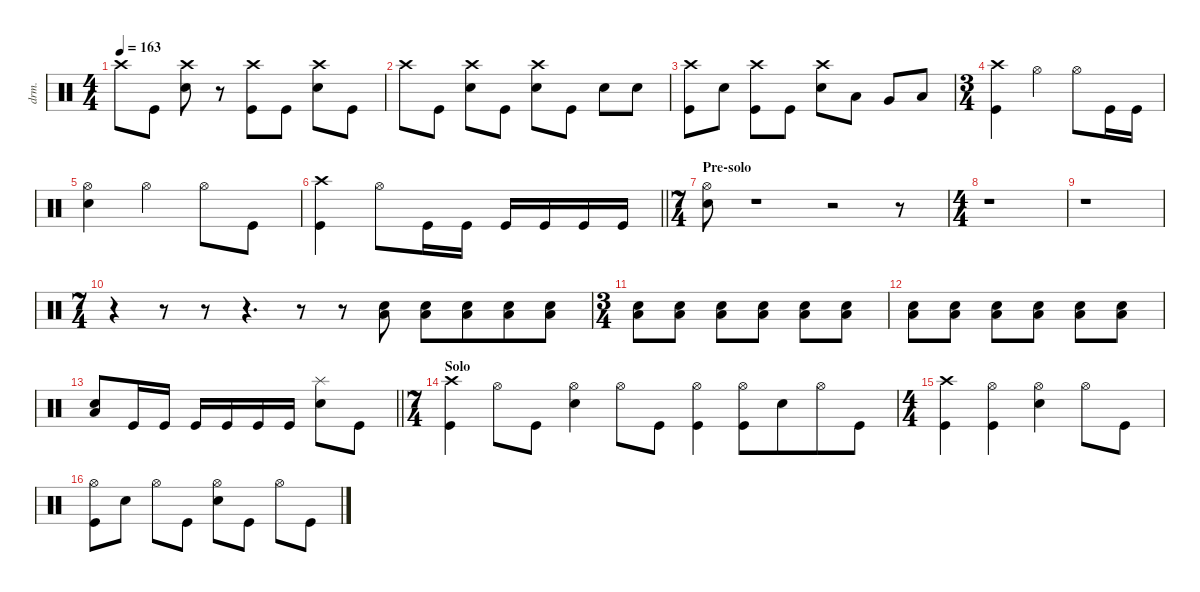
\defaultSystemsLayout 4
\hideDynamics
\bracketExtendMode nobrackets
\otherSystemsTrackNameOrientation horizontal
\track ("Drums" "drm.") {instrument percussion}
\staff {score}
\articulation defaults
\ts (4 4)
\tempo 163
\clef neutral
\ks c "Crash high (hit)".8{dy f} "Kick (hit)".8
("Crash high (hit)" "Snare (hit) 2").8 r.8 ("Crash high (hit)" "Kick (hit)").8 "Kick (hit)".8 ("Crash high (hit)" "Snare (hit) 2").8 "Kick (hit)".8 |
"Crash high (hit)".8 "Kick (hit)".8 ("Crash high (hit)" "Snare (hit) 2").8 "Kick (hit)".8 ("Crash high (hit)" "Snare (hit) 2").8 "Kick (hit)".8 "Snare (hit) 2".8 "Snare (hit) 2".8 |
\section ("" "")
("Crash high (hit)" "Kick (hit)").8 "Snare (hit) 2".8 ("Crash high (hit)" "Kick (hit)").8 "Kick (hit)".8 ("Crash high (hit)" "Snare (hit) 2").8 "Low Tom (hit)".8 "Very Low Tom (hit)".8 "Low Floor Tom (hit)".8 |
\ts (3 4)
\beaming (8 2 2 2)
("Crash high (hit)" "Kick (hit)").4 "Hi-Hat (open)".4 "Hi-Hat (open)".8 "Kick (hit)".16 "Kick (hit)".16 |
("Hi-Hat (open)" "Snare (hit) 2").4 "Hi-Hat (open)".4 "Hi-Hat (open)".8 "Kick (hit)".8 |
\barLineRight lightlight
("Crash high (hit)" "Kick (hit)").4 "Hi-Hat (open)".8 "Kick (hit)".16 "Kick (hit)".16 "Kick (hit)".16 "Kick (hit)".16 "Kick (hit)".16 "Kick (hit)".16 |
\ts (7 4)
\beaming (8 6 4 4)
\section ("" "Pre-solo")
("Hi-Hat (open)" "Snare (hit) 2").8 r.1 r.2 r.8 |
\ts (4 4)
\beaming (8 2 2 2 2)
r.1 |
r.1 |
\ts (7 4)
\beaming (8 6 4 4)
r.4 r.8 r.8 r.4{d} r.8 r.8 ("Snare (hit) 2" "Low Floor Tom (hit)").8{dy p} ("Snare (hit) 2" "Low Floor Tom (hit)").8 ("Snare (hit) 2" "Low Floor Tom (hit)").8 ("Snare (hit) 2" "Low Floor Tom (hit)").8{dy mp} ("Snare (hit) 2" "Low Floor Tom (hit)").8 |
\ts (3 4)
\beaming (8 2 2 2)
("Snare (hit) 2" "Low Floor Tom (hit)").8 ("Snare (hit) 2" "Low Floor Tom (hit)").8 ("Snare (hit) 2" "Low Floor Tom (hit)").8{dy mf} ("Snare (hit) 2" "Low Floor Tom (hit)").8 ("Snare (hit) 2" "Low Floor Tom (hit)").8 ("Snare (hit) 2" "Low Floor Tom (hit)").8 |
("Snare (hit) 2" "Low Floor Tom (hit)").8{dy f} ("Snare (hit) 2" "Low Floor Tom (hit)").8 ("Snare (hit) 2" "Low Floor Tom (hit)").8{dy ff} ("Snare (hit) 2" "Low Floor Tom (hit)").8 ("Snare (hit) 2" "Low Floor Tom (hit)").8 ("Snare (hit) 2" "Low Floor Tom (hit)").8 |
\barLineRight lightlight
("Snare (hit) 2" "Low Floor Tom (hit)").8 "Kick (hit)".16{dy f} "Kick (hit)".16 "Kick (hit)".16 "Kick (hit)".16 "Kick (hit)".16 "Kick (hit)".16 ("Splash (hit)" "Snare (hit) 2").8 "Kick (hit)".8 |
\ts (7 4)
\beaming (8 6 4 4)
\section ("" "Solo")
("Crash high (hit)" "Kick (hit)").4 "Hi-Hat (open)".8 "Kick (hit)".8 ("Hi-Hat (open)" "Snare (hit) 2").4 "Hi-Hat (open)".8 "Kick (hit)".8 ("Hi-Hat (open)" "Kick (hit)").4 ("Hi-Hat (open)" "Kick (hit)").8 "Snare (hit) 2".8 "Hi-Hat (open)".8 "Kick (hit)".8 |
\ts (4 4)
\beaming (8 2 2 2 2)
("Crash high (hit)" "Kick (hit)").4 ("Hi-Hat (open)" "Kick (hit)").4 ("Hi-Hat (open)" "Snare (hit) 2").4 "Hi-Hat (open)".8 "Kick (hit)".8 |
("Hi-Hat (open)" "Kick (hit)").8 "Snare (hit) 2".8 "Hi-Hat (open)".8 "Kick (hit)".8 ("Hi-Hat (open)" "Snare (hit) 2").8 "Kick (hit)".8 "Hi-Hat (open)".8 "Kick (hit)".8
